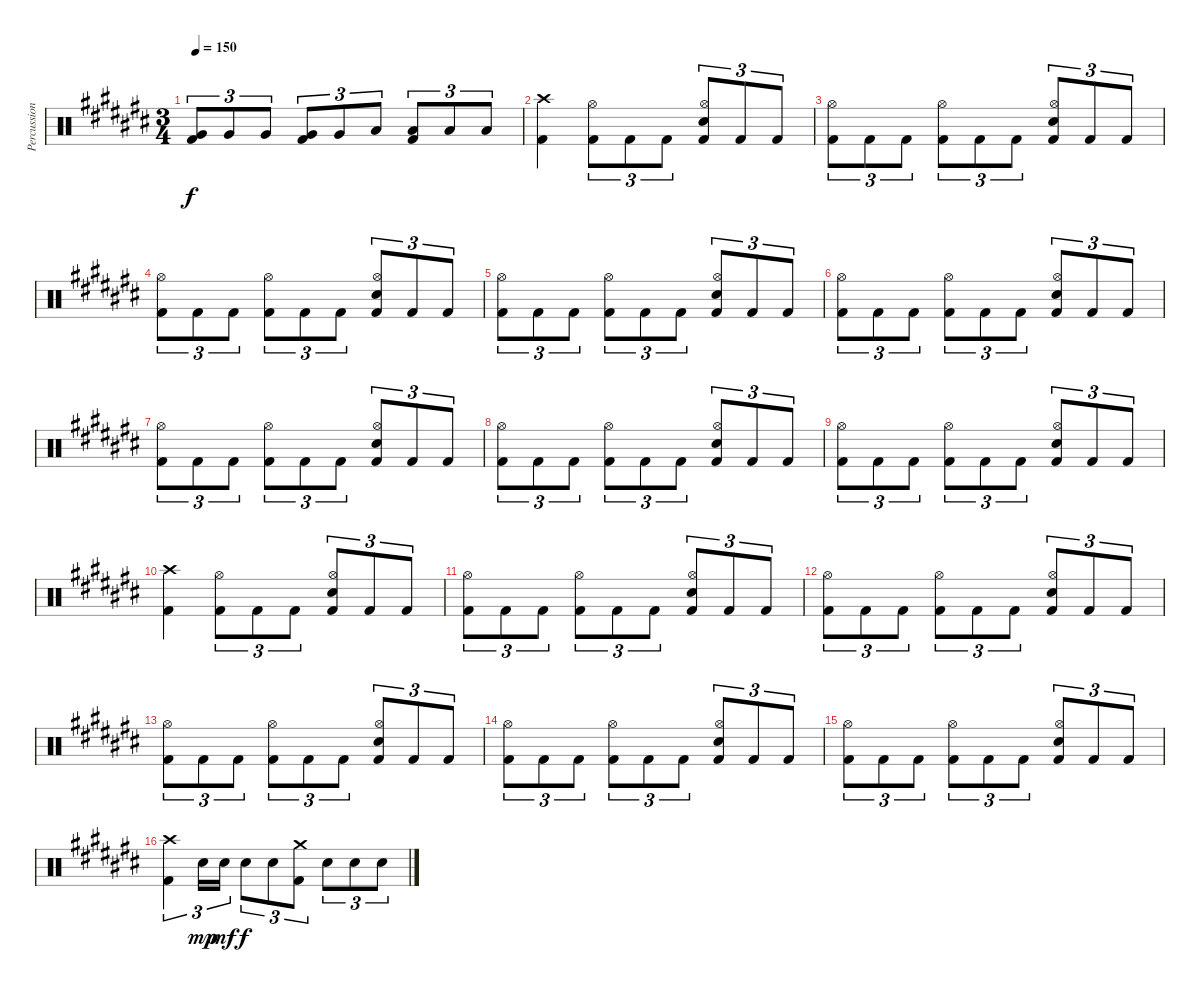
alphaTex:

\track ("Percussion" "Percussion") {instrument percussion}
\staff {score}
\articulation defaults
\ts (3 4)
\tempo 150
\clef neutral
\ks c#
("Very Low Tom (hit)" "Kick (hit) 2").8{tu (3 2) dy f} "Very Low Tom (hit)".8{tu (3 2)} "Very Low Tom (hit)".8{tu (3 2)} ("Very Low Tom (hit)" "Kick (hit) 2").8{tu (3 2)} "Very Low Tom (hit)".8{tu (3 2)} "Low Floor Tom (hit)".8{tu (3 2)} ("Low Floor Tom (hit)" "Kick (hit) 2").8{tu (3 2)} "Low Floor Tom (hit)".8{tu (3 2)} "Low Floor Tom (hit)".8{tu (3 2)} |
("Crash high (hit)" "Kick (hit) 2").4 ("Hi-Hat (open)" "Kick (hit) 2").8{tu (3 2)} "Kick (hit) 2".8{tu (3 2)} "Kick (hit) 2".8{tu (3 2)} ("Hi-Hat (open)" "Electric Snare (hit)" "Kick (hit) 2").8{tu (3 2)} "Kick (hit) 2".8{tu (3 2)} "Kick (hit) 2".8{tu (3 2)} |
("Hi-Hat (open)" "Kick (hit) 2").8{tu (3 2)} "Kick (hit) 2".8{tu (3 2)} "Kick (hit) 2".8{tu (3 2)} ("Hi-Hat (open)" "Kick (hit) 2").8{tu (3 2)} "Kick (hit) 2".8{tu (3 2)} "Kick (hit) 2".8{tu (3 2)} ("Hi-Hat (open)" "Electric Snare (hit)" "Kick (hit) 2").8{tu (3 2)} "Kick (hit) 2".8{tu (3 2)} "Kick (hit) 2".8{tu (3 2)} |
("Hi-Hat (open)" "Kick (hit) 2").8{tu (3 2)} "Kick (hit) 2".8{tu (3 2)} "Kick (hit) 2".8{tu (3 2)} ("Hi-Hat (open)" "Kick (hit) 2").8{tu (3 2)} "Kick (hit) 2".8{tu (3 2)} "Kick (hit) 2".8{tu (3 2)} ("Hi-Hat (open)" "Electric Snare (hit)" "Kick (hit) 2").8{tu (3 2)} "Kick (hit) 2".8{tu (3 2)} "Kick (hit) 2".8{tu (3 2)} |
("Hi-Hat (open)" "Kick (hit) 2").8{tu (3 2)} "Kick (hit) 2".8{tu (3 2)} "Kick (hit) 2".8{tu (3 2)} ("Hi-Hat (open)" "Kick (hit) 2").8{tu (3 2)} "Kick (hit) 2".8{tu (3 2)} "Kick (hit) 2".8{tu (3 2)} ("Hi-Hat (open)" "Electric Snare (hit)" "Kick (hit) 2").8{tu (3 2)} "Kick (hit) 2".8{tu (3 2)} "Kick (hit) 2".8{tu (3 2)} |
("Hi-Hat (open)" "Kick (hit) 2").8{tu (3 2)} "Kick (hit) 2".8{tu (3 2)} "Kick (hit) 2".8{tu (3 2)} ("Hi-Hat (open)" "Kick (hit) 2").8{tu (3 2)} "Kick (hit) 2".8{tu (3 2)} "Kick (hit) 2".8{tu (3 2)} ("Hi-Hat (open)" "Electric Snare (hit)" "Kick (hit) 2").8{tu (3 2)} "Kick (hit) 2".8{tu (3 2)} "Kick (hit) 2".8{tu (3 2)} |
("Hi-Hat (open)" "Kick (hit) 2").8{tu (3 2)} "Kick (hit) 2".8{tu (3 2)} "Kick (hit) 2".8{tu (3 2)} ("Hi-Hat (open)" "Kick (hit) 2").8{tu (3 2)} "Kick (hit) 2".8{tu (3 2)} "Kick (hit) 2".8{tu (3 2)} ("Hi-Hat (open)" "Electric Snare (hit)" "Kick (hit) 2").8{tu (3 2)} "Kick (hit) 2".8{tu (3 2)} "Kick (hit) 2".8{tu (3 2)} |
("Hi-Hat (open)" "Kick (hit) 2").8{tu (3 2)} "Kick (hit) 2".8{tu (3 2)} "Kick (hit) 2".8{tu (3 2)} ("Hi-Hat (open)" "Kick (hit) 2").8{tu (3 2)} "Kick (hit) 2".8{tu (3 2)} "Kick (hit) 2".8{tu (3 2)} ("Hi-Hat (open)" "Electric Snare (hit)" "Kick (hit) 2").8{tu (3 2)} "Kick (hit) 2".8{tu (3 2)} "Kick (hit) 2".8{tu (3 2)} |
("Hi-Hat (open)" "Kick (hit) 2").8{tu (3 2)} "Kick (hit) 2".8{tu (3 2)} "Kick (hit) 2".8{tu (3 2)} ("Hi-Hat (open)" "Kick (hit) 2").8{tu (3 2)} "Kick (hit) 2".8{tu (3 2)} "Kick (hit) 2".8{tu (3 2)} ("Hi-Hat (open)" "Electric Snare (hit)" "Kick (hit) 2").8{tu (3 2)} "Kick (hit) 2".8{tu (3 2)} "Kick (hit) 2".8{tu (3 2)} |
("Crash high (hit)" "Kick (hit) 2").4 ("Hi-Hat (open)" "Kick (hit) 2").8{tu (3 2)} "Kick (hit) 2".8{tu (3 2)} "Kick (hit) 2".8{tu (3 2)} ("Hi-Hat (open)" "Electric Snare (hit)" "Kick (hit) 2").8{tu (3 2)} "Kick (hit) 2".8{tu (3 2)} "Kick (hit) 2".8{tu (3 2)} |
("Hi-Hat (open)" "Kick (hit) 2").8{tu (3 2)} "Kick (hit) 2".8{tu (3 2)} "Kick (hit) 2".8{tu (3 2)} ("Hi-Hat (open)" "Kick (hit) 2").8{tu (3 2)} "Kick (hit) 2".8{tu (3 2)} "Kick (hit) 2".8{tu (3 2)} ("Hi-Hat (open)" "Electric Snare (hit)" "Kick (hit) 2").8{tu (3 2)} "Kick (hit) 2".8{tu (3 2)} "Kick (hit) 2".8{tu (3 2)} |
("Hi-Hat (open)" "Kick (hit) 2").8{tu (3 2)} "Kick (hit) 2".8{tu (3 2)} "Kick (hit) 2".8{tu (3 2)} ("Hi-Hat (open)" "Kick (hit) 2").8{tu (3 2)} "Kick (hit) 2".8{tu (3 2)} "Kick (hit) 2".8{tu (3 2)} ("Hi-Hat (open)" "Electric Snare (hit)" "Kick (hit) 2").8{tu (3 2)} "Kick (hit) 2".8{tu (3 2)} "Kick (hit) 2".8{tu (3 2)} |
("Hi-Hat (open)" "Kick (hit) 2").8{tu (3 2)} "Kick (hit) 2".8{tu (3 2)} "Kick (hit) 2".8{tu (3 2)} ("Hi-Hat (open)" "Kick (hit) 2").8{tu (3 2)} "Kick (hit) 2".8{tu (3 2)} "Kick (hit) 2".8{tu (3 2)} ("Hi-Hat (open)" "Electric Snare (hit)" "Kick (hit) 2").8{tu (3 2)} "Kick (hit) 2".8{tu (3 2)} "Kick (hit) 2".8{tu (3 2)} |
("Hi-Hat (open)" "Kick (hit) 2").8{tu (3 2)} "Kick (hit) 2".8{tu (3 2)} "Kick (hit) 2".8{tu (3 2)} ("Hi-Hat (open)" "Kick (hit) 2").8{tu (3 2)} "Kick (hit) 2".8{tu (3 2)} "Kick (hit) 2".8{tu (3 2)} ("Hi-Hat (open)" "Electric Snare (hit)" "Kick (hit) 2").8{tu (3 2)} "Kick (hit) 2".8{tu (3 2)} "Kick (hit) 2".8{tu (3 2)} |
("Hi-Hat (open)" "Kick (hit) 2").8{tu (3 2)} "Kick (hit) 2".8{tu (3 2)} "Kick (hit) 2".8{tu (3 2)} ("Hi-Hat (open)" "Kick (hit) 2").8{tu (3 2)} "Kick (hit) 2".8{tu (3 2)} "Kick (hit) 2".8{tu (3 2)} ("Hi-Hat (open)" "Electric Snare (hit)" "Kick (hit) 2").8{tu (3 2)} "Kick (hit) 2".8{tu (3 2)} "Kick (hit) 2".8{tu (3 2)} |
("Crash high (hit)" "Kick (hit) 2").4{tu (3 2)} "Electric Snare (hit)".16{tu (3 2) dy mp} "Electric Snare (hit)".16{tu (3 2) dy mf} "Electric Snare (hit)".8{tu (3 2) dy f} "Electric Snare (hit)".8{tu (3 2)} ("Crash medium (hit)" "Kick (hit) 2").8{tu (3 2)} "Electric Snare (hit)".8{tu (3 2)} "Electric Snare (hit)".8{tu (3 2)} "Electric Snare (hit)".8{tu (3 2)}
